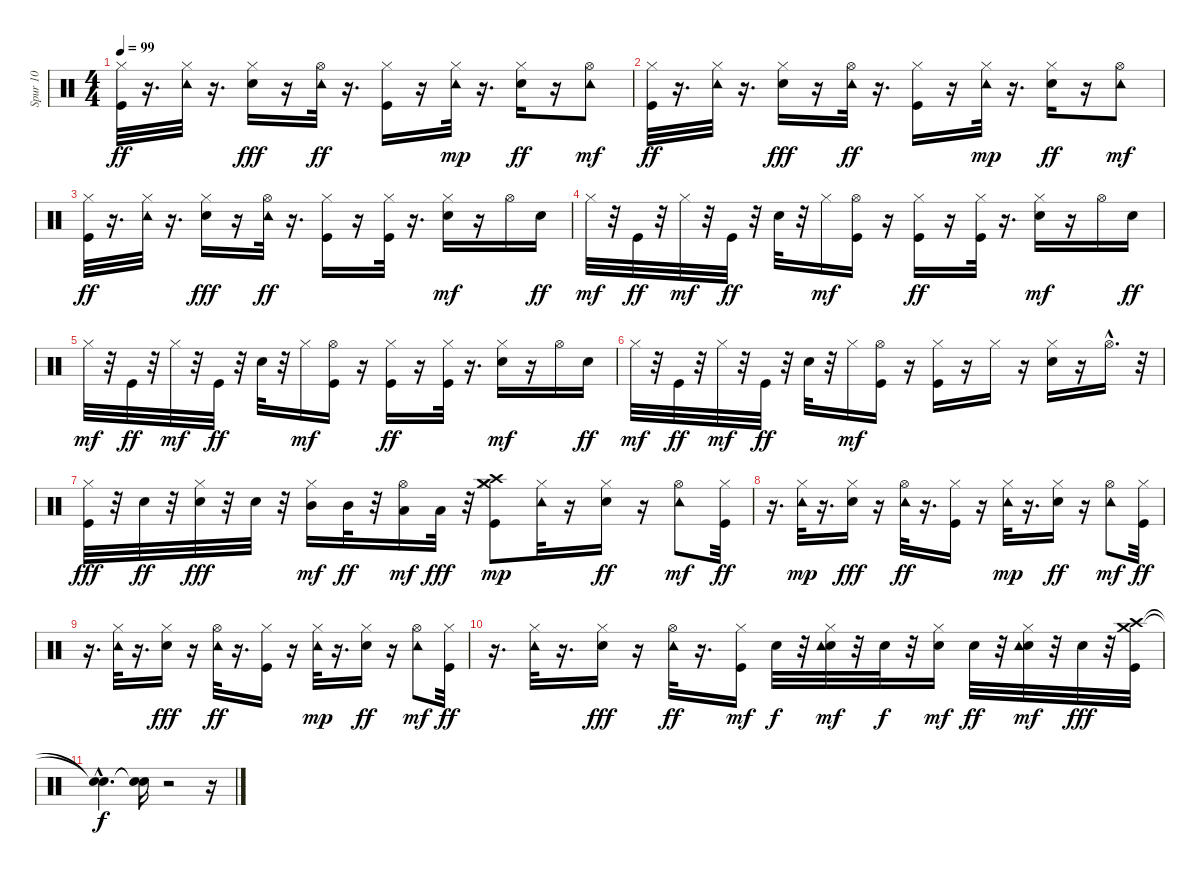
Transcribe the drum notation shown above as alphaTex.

\track ("Spur 10" "Spur 10") {instrument percussion}
\staff {score}
\articulation defaults
\ts (4 4)
\tempo 99
\clef neutral
\ks c
("Hi-Hat (closed)" "Kick (hit)").32{dy ff} r.16{d} ("Hi-Hat (closed)" "Tambourine (hit)").32 r.16{d} ("Hi-Hat (closed)" "Electric Snare (hit)").16{dy fff} r.16 ("Hi-Hat (open)" "Tambourine (hit)").32{dy ff} r.16{d} ("Hi-Hat (closed)" "Kick (hit)").16 r.16 ("Hi-Hat (closed)" "Tambourine (hit)").32{dy mp} r.16{d} ("Hi-Hat (closed)" "Electric Snare (hit)").16{dy ff} r.16 ("Hi-Hat (open)" "Tambourine (hit)").8{dy mf} |
("Hi-Hat (closed)" "Kick (hit)").32{dy ff} r.16{d} ("Hi-Hat (closed)" "Tambourine (hit)").32 r.16{d} ("Hi-Hat (closed)" "Electric Snare (hit)").16{dy fff} r.16 ("Hi-Hat (open)" "Tambourine (hit)").32{dy ff} r.16{d} ("Hi-Hat (closed)" "Kick (hit)").16 r.16 ("Hi-Hat (closed)" "Tambourine (hit)").32{dy mp} r.16{d} ("Hi-Hat (closed)" "Electric Snare (hit)").16{dy ff} r.16 ("Hi-Hat (open)" "Tambourine (hit)").8{dy mf} |
("Hi-Hat (closed)" "Kick (hit)").32{dy ff} r.16{d} ("Hi-Hat (closed)" "Tambourine (hit)").32 r.16{d} ("Hi-Hat (closed)" "Electric Snare (hit)").16{dy fff} r.16 ("Hi-Hat (open)" "Tambourine (hit)").32{dy ff} r.16{d} ("Hi-Hat (closed)" "Kick (hit)").16 r.16 ("Hi-Hat (closed)" "Kick (hit)").32 r.16{d} ("Electric Snare (hit)" "Hi-Hat (closed)").16{dy mf} r.16 "Hi-Hat (open)".16 "Electric Snare (hit)".16{dy ff} |
"Hi-Hat (closed)".32{dy mf} r.32 "Kick (hit)".32{dy ff} r.32 "Hi-Hat (closed)".32{dy mf} r.32 "Kick (hit)".32{dy ff} r.32 "Electric Snare (hit)".32 r.32 "Hi-Hat (closed)".16{dy mf} ("Kick (hit)" "Hi-Hat (open)").16 r.16 ("Hi-Hat (closed)" "Kick (hit)").16{dy ff} r.16 ("Hi-Hat (closed)" "Kick (hit)").32 r.16{d} ("Electric Snare (hit)" "Hi-Hat (closed)").16{dy mf} r.16 "Hi-Hat (open)".16 "Electric Snare (hit)".16{dy ff} |
"Hi-Hat (closed)".32{dy mf} r.32 "Kick (hit)".32{dy ff} r.32 "Hi-Hat (closed)".32{dy mf} r.32 "Kick (hit)".32{dy ff} r.32 "Electric Snare (hit)".32 r.32 "Hi-Hat (closed)".16{dy mf} ("Kick (hit)" "Hi-Hat (open)").16 r.16 ("Hi-Hat (closed)" "Kick (hit)").16{dy ff} r.16 ("Hi-Hat (closed)" "Kick (hit)").32 r.16{d} ("Electric Snare (hit)" "Hi-Hat (closed)").16{dy mf} r.16 "Hi-Hat (open)".16 "Electric Snare (hit)".16{dy ff} |
"Hi-Hat (closed)".32{dy mf} r.32 "Kick (hit)".32{dy ff} r.32 "Hi-Hat (closed)".32{dy mf} r.32 "Kick (hit)".32{dy ff} r.32 "Electric Snare (hit)".32 r.32 "Hi-Hat (closed)".16{dy mf} ("Kick (hit)" "Hi-Hat (open)").16 r.16 ("Kick (hit)" "Hi-Hat (closed)").16 r.16 "Hi-Hat (closed)".16 r.16 ("Electric Snare (hit)" "Hi-Hat (closed)").16 r.16 "Hi-Hat (open)"{hac}.16{d} r.32 |
("Hi-Hat (closed)" "Kick (hit)").32{dy fff} r.32 "Electric Snare (hit)".32{dy ff} r.32 ("Hi-Hat (closed)" "Electric Snare (hit)").32{dy fff} r.32 "Electric Snare (hit)".32 r.32 ("Mid Tom (hit)" "Hi-Hat (closed)").16{dy mf} "Mid Tom (hit)".32{dy ff} r.32 ("Low Tom (hit)" "Hi-Hat (open)").16{dy mf} "Low Tom (hit)".32{dy fff} r.32 ("Hi-Hat (closed)" "Kick (hit)" "Crash high (hit)" "Crash medium (hit)").8{dy mp} ("Hi-Hat (closed)" "Tambourine (hit)").32 r.16 ("Hi-Hat (closed)" "Electric Snare (hit)").16{dy ff} r.16 ("Hi-Hat (open)" "Tambourine (hit)").8{dy mf} ("Hi-Hat (closed)" "Kick (hit)").32{dy ff} |
r.16{d} ("Hi-Hat (closed)" "Tambourine (hit)").32{dy mp} r.16{d} ("Hi-Hat (closed)" "Electric Snare (hit)").16{dy fff} r.16 ("Hi-Hat (open)" "Tambourine (hit)").32{dy ff} r.16{d} ("Hi-Hat (closed)" "Kick (hit)").16 r.16 ("Hi-Hat (closed)" "Tambourine (hit)").32{dy mp} r.16{d} ("Hi-Hat (closed)" "Electric Snare (hit)").16{dy ff} r.16 ("Hi-Hat (open)" "Tambourine (hit)").8{dy mf} ("Hi-Hat (closed)" "Kick (hit)").32{dy ff} |
r.16{d} ("Hi-Hat (closed)" "Tambourine (hit)").32 r.16{d} ("Hi-Hat (closed)" "Electric Snare (hit)").16{dy fff} r.16 ("Hi-Hat (open)" "Tambourine (hit)").32{dy ff} r.16{d} ("Hi-Hat (closed)" "Kick (hit)").16 r.16 ("Hi-Hat (closed)" "Tambourine (hit)").32{dy mp} r.16{d} ("Hi-Hat (closed)" "Electric Snare (hit)").16{dy ff} r.16 ("Hi-Hat (open)" "Tambourine (hit)").8{dy mf} ("Hi-Hat (closed)" "Kick (hit)").32{dy ff} |
r.16{d} ("Hi-Hat (closed)" "Tambourine (hit)").32 r.16{d} ("Hi-Hat (closed)" "Electric Snare (hit)").16{dy fff} r.16 ("Hi-Hat (open)" "Tambourine (hit)").32{dy ff} r.16{d} ("Kick (hit)" "Hi-Hat (closed)").16{dy mf} "Electric Snare (hit)".32{dy f} r.32 ("Hi-Hat (closed)" "Electric Snare (hit)" "Tambourine (hit)").32{dy mf} r.32 "Electric Snare (hit)".32{dy f} r.32 ("Electric Snare (hit)" "Hi-Hat (closed)").16{dy mf} "Electric Snare (hit)".32{dy ff} r.32 ("Electric Snare (hit)" "Hi-Hat (closed)" "Tambourine (hit)").32{dy mf} r.32 "Electric Snare (hit)".32{dy fff} r.32 ("Crash medium (hit)" "Crash high (hit)" "Kick (hit)").32 |
("Snare (hit)"{hac t} "Snare (hit)"{hac t}).4{d dy f} ("Snare (hit)"{t} "Snare (hit)"{t}).16 r.2 r.16
